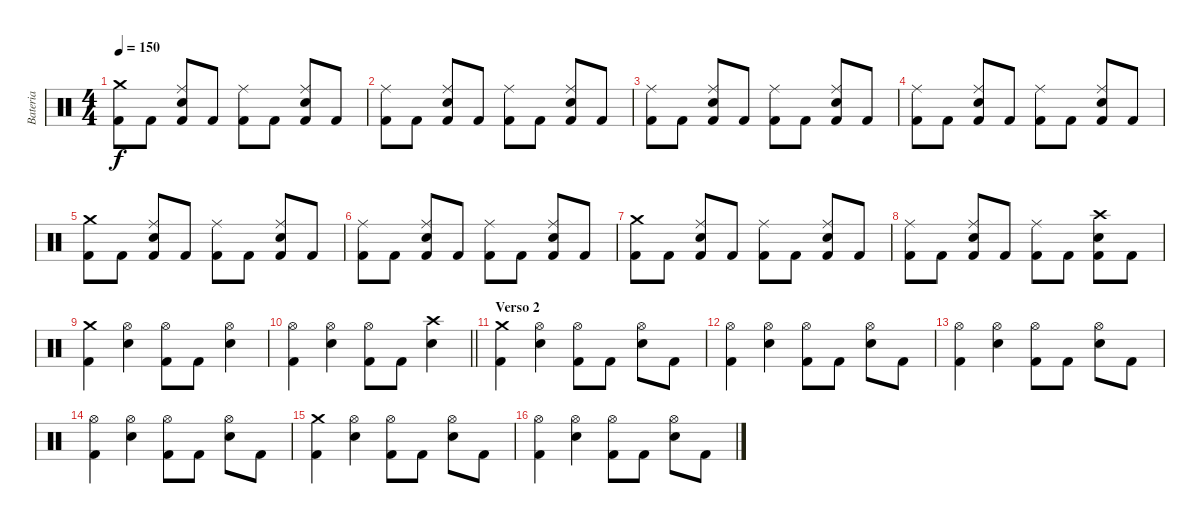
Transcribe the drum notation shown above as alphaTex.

\track ("Bateria" "Bateria") {instrument percussion}
\staff {score}
\articulation defaults
\ts (4 4)
\tempo 150
\clef neutral
\ks c
("Crash medium (hit)" "Kick (hit) 2").8{dy f} "Kick (hit) 2".8 ("Ride (middle)" "Snare (hit) 2" "Kick (hit) 2").8 "Kick (hit) 2".8 ("Ride (middle)" "Kick (hit) 2").8 "Kick (hit) 2".8 ("Ride (middle)" "Snare (hit) 2" "Kick (hit) 2").8 "Kick (hit) 2".8 |
("Ride (middle)" "Kick (hit) 2").8 "Kick (hit) 2".8 ("Ride (middle)" "Snare (hit) 2" "Kick (hit) 2").8 "Kick (hit) 2".8 ("Ride (middle)" "Kick (hit) 2").8 "Kick (hit) 2".8 ("Ride (middle)" "Snare (hit) 2" "Kick (hit) 2").8 "Kick (hit) 2".8 |
("Ride (middle)" "Kick (hit) 2").8 "Kick (hit) 2".8 ("Ride (middle)" "Snare (hit) 2" "Kick (hit) 2").8 "Kick (hit) 2".8 ("Ride (middle)" "Kick (hit) 2").8 "Kick (hit) 2".8 ("Ride (middle)" "Snare (hit) 2" "Kick (hit) 2").8 "Kick (hit) 2".8 |
("Ride (middle)" "Kick (hit) 2").8 "Kick (hit) 2".8 ("Ride (middle)" "Snare (hit) 2" "Kick (hit) 2").8 "Kick (hit) 2".8 ("Ride (middle)" "Kick (hit) 2").8 "Kick (hit) 2".8 ("Ride (middle)" "Snare (hit) 2" "Kick (hit) 2").8 "Kick (hit) 2".8 |
("Crash medium (hit)" "Kick (hit) 2").8 "Kick (hit) 2".8 ("Ride (middle)" "Snare (hit) 2" "Kick (hit) 2").8 "Kick (hit) 2".8 ("Ride (middle)" "Kick (hit) 2").8 "Kick (hit) 2".8 ("Ride (middle)" "Snare (hit) 2" "Kick (hit) 2").8 "Kick (hit) 2".8 |
("Ride (middle)" "Kick (hit) 2").8 "Kick (hit) 2".8 ("Ride (middle)" "Snare (hit) 2" "Kick (hit) 2").8 "Kick (hit) 2".8 ("Ride (middle)" "Kick (hit) 2").8 "Kick (hit) 2".8 ("Ride (middle)" "Snare (hit) 2" "Kick (hit) 2").8 "Kick (hit) 2".8 |
("Crash medium (hit)" "Kick (hit) 2").8 "Kick (hit) 2".8 ("Ride (middle)" "Snare (hit) 2" "Kick (hit) 2").8 "Kick (hit) 2".8 ("Ride (middle)" "Kick (hit) 2").8 "Kick (hit) 2".8 ("Ride (middle)" "Snare (hit) 2" "Kick (hit) 2").8 "Kick (hit) 2".8 |
("Ride (middle)" "Kick (hit) 2").8 "Kick (hit) 2".8 ("Ride (middle)" "Snare (hit) 2" "Kick (hit) 2").8 "Kick (hit) 2".8 ("Ride (middle)" "Kick (hit) 2").8 "Kick (hit) 2".8 ("Crash high (hit)" "Snare (hit) 2" "Kick (hit) 2").8 "Kick (hit) 2".8 |
("Crash medium (hit)" "Kick (hit) 2").4 ("Hi-Hat (open)" "Snare (hit) 2").4 ("Hi-Hat (open)" "Kick (hit) 2").8 "Kick (hit) 2".8 ("Hi-Hat (open)" "Snare (hit) 2").4 |
\barLineRight lightlight
("Hi-Hat (open)" "Kick (hit) 2").4 ("Hi-Hat (open)" "Snare (hit) 2").4 ("Hi-Hat (open)" "Kick (hit) 2").8 "Kick (hit) 2".8 ("Crash high (hit)" "Snare (hit) 2").4 |
\section ("" "Verso 2")
("Crash medium (hit)" "Kick (hit) 2").4 ("Hi-Hat (open)" "Snare (hit) 2").4 ("Hi-Hat (open)" "Kick (hit) 2").8 "Kick (hit) 2".8 ("Hi-Hat (open)" "Snare (hit) 2").8 "Kick (hit) 2".8 |
("Hi-Hat (open)" "Kick (hit) 2").4 ("Hi-Hat (open)" "Snare (hit) 2").4 ("Hi-Hat (open)" "Kick (hit) 2").8 "Kick (hit) 2".8 ("Hi-Hat (open)" "Snare (hit) 2").8 "Kick (hit) 2".8 |
("Hi-Hat (open)" "Kick (hit) 2").4 ("Hi-Hat (open)" "Snare (hit) 2").4 ("Hi-Hat (open)" "Kick (hit) 2").8 "Kick (hit) 2".8 ("Hi-Hat (open)" "Snare (hit) 2").8 "Kick (hit) 2".8 |
("Hi-Hat (open)" "Kick (hit) 2").4 ("Hi-Hat (open)" "Snare (hit) 2").4 ("Hi-Hat (open)" "Kick (hit) 2").8 "Kick (hit) 2".8 ("Hi-Hat (open)" "Snare (hit) 2").8 "Kick (hit) 2".8 |
("Crash medium (hit)" "Kick (hit) 2").4 ("Hi-Hat (open)" "Snare (hit) 2").4 ("Hi-Hat (open)" "Kick (hit) 2").8 "Kick (hit) 2".8 ("Hi-Hat (open)" "Snare (hit) 2").8 "Kick (hit) 2".8 |
("Hi-Hat (open)" "Kick (hit) 2").4 ("Hi-Hat (open)" "Snare (hit) 2").4 ("Hi-Hat (open)" "Kick (hit) 2").8 "Kick (hit) 2".8 ("Hi-Hat (open)" "Snare (hit) 2").8 "Kick (hit) 2".8
